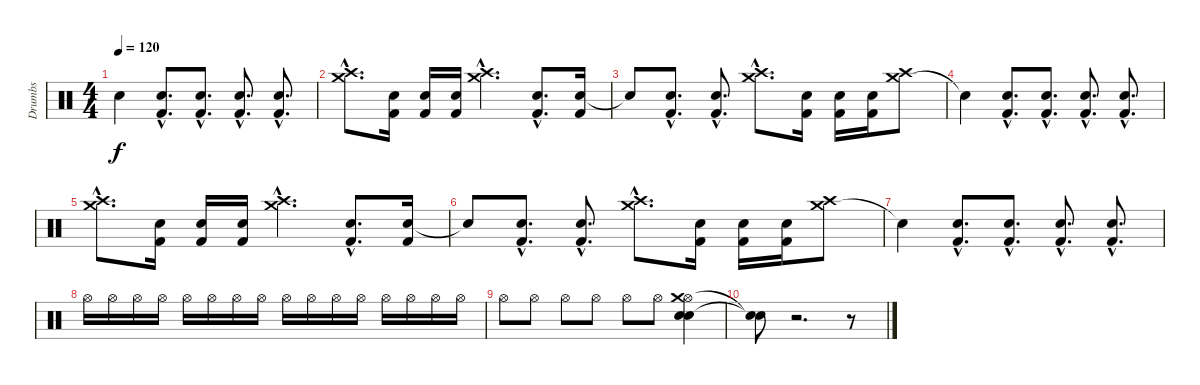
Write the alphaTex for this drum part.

\track ("Drumbs" "Drumbs") {instrument percussion}
\staff {score}
\articulation defaults
\ts (4 4)
\tempo 120
\clef neutral
\ks c "Snare (hit)"{t}.4{dy f}
("Electric Snare (hit)"{hac} "Kick (hit) 2"{hac}).8{d} ("Electric Snare (hit)"{hac} "Kick (hit) 2"{hac}).8{d} ("Electric Snare (hit)"{hac} "Kick (hit) 2"{hac}).8{d} ("Electric Snare (hit)"{hac} "Kick (hit) 2"{hac}).8{d} |
("Crash high (hit)"{hac} "Crash medium (hit)"{hac}).8{d} ("Electric Snare (hit)" "Kick (hit) 2").16 ("Electric Snare (hit)" "Kick (hit) 2").16 ("Electric Snare (hit)" "Kick (hit) 2").16 ("Crash high (hit)"{hac} "Crash medium (hit)"{hac}).4{d} ("Electric Snare (hit)"{hac} "Kick (hit) 2"{hac}).8{d} ("Electric Snare (hit)" "Kick (hit) 2").16 |
"Snare (hit)"{t}.8 ("Electric Snare (hit)"{hac} "Kick (hit) 2"{hac}).8{d} ("Electric Snare (hit)"{hac} "Kick (hit) 2"{hac}).8{d} ("Crash medium (hit)"{hac} "Crash high (hit)"{hac}).8{d} ("Electric Snare (hit)" "Kick (hit) 2").16 ("Electric Snare (hit)" "Kick (hit) 2").16 ("Electric Snare (hit)" "Kick (hit) 2").16 ("Crash medium (hit)" "Crash high (hit)").8 |
"Snare (hit)"{t}.4 ("Electric Snare (hit)"{hac} "Kick (hit) 2"{hac}).8{d} ("Electric Snare (hit)"{hac} "Kick (hit) 2"{hac}).8{d} ("Electric Snare (hit)"{hac} "Kick (hit) 2"{hac}).8{d} ("Electric Snare (hit)"{hac} "Kick (hit) 2"{hac}).8{d} |
("Crash high (hit)"{hac} "Crash medium (hit)"{hac}).8{d} ("Electric Snare (hit)" "Kick (hit) 2").16 ("Electric Snare (hit)" "Kick (hit) 2").16 ("Electric Snare (hit)" "Kick (hit) 2").16 ("Crash high (hit)"{hac} "Crash medium (hit)"{hac}).4{d} ("Electric Snare (hit)"{hac} "Kick (hit) 2"{hac}).8{d} ("Electric Snare (hit)" "Kick (hit) 2").16 |
"Snare (hit)"{t}.8 ("Electric Snare (hit)"{hac} "Kick (hit) 2"{hac}).8{d} ("Electric Snare (hit)"{hac} "Kick (hit) 2"{hac}).8{d} ("Crash medium (hit)"{hac} "Crash high (hit)"{hac}).8{d} ("Electric Snare (hit)" "Kick (hit) 2").16 ("Electric Snare (hit)" "Kick (hit) 2").16 ("Electric Snare (hit)" "Kick (hit) 2").16 ("Crash medium (hit)" "Crash high (hit)").8 |
"Snare (hit)"{t}.4 ("Electric Snare (hit)"{hac} "Kick (hit) 2"{hac}).8{d} ("Electric Snare (hit)"{hac} "Kick (hit) 2"{hac}).8{d} ("Electric Snare (hit)"{hac} "Kick (hit) 2"{hac}).8{d} ("Electric Snare (hit)"{hac} "Kick (hit) 2"{hac}).8{d} |
"Hi-Hat (open)".16 "Hi-Hat (open)".16 "Hi-Hat (open)".16 "Hi-Hat (open)".16 "Hi-Hat (open)".16 "Hi-Hat (open)".16 "Hi-Hat (open)".16 "Hi-Hat (open)".16 "Hi-Hat (open)".16 "Hi-Hat (open)".16 "Hi-Hat (open)".16 "Hi-Hat (open)".16 "Hi-Hat (open)".16 "Hi-Hat (open)".16 "Hi-Hat (open)".16 "Hi-Hat (open)".16 |
"Hi-Hat (open)".8 "Hi-Hat (open)".8 "Hi-Hat (open)".8 "Hi-Hat (open)".8 "Hi-Hat (open)".8 "Hi-Hat (open)".8 ("Hi-Hat (open)" "Electric Snare (hit)" "Snare (hit) 2" "Crash medium (hit)").4 |
("Snare (hit)"{t} "Snare (hit)"{t}).8 r.2{d} r.8
